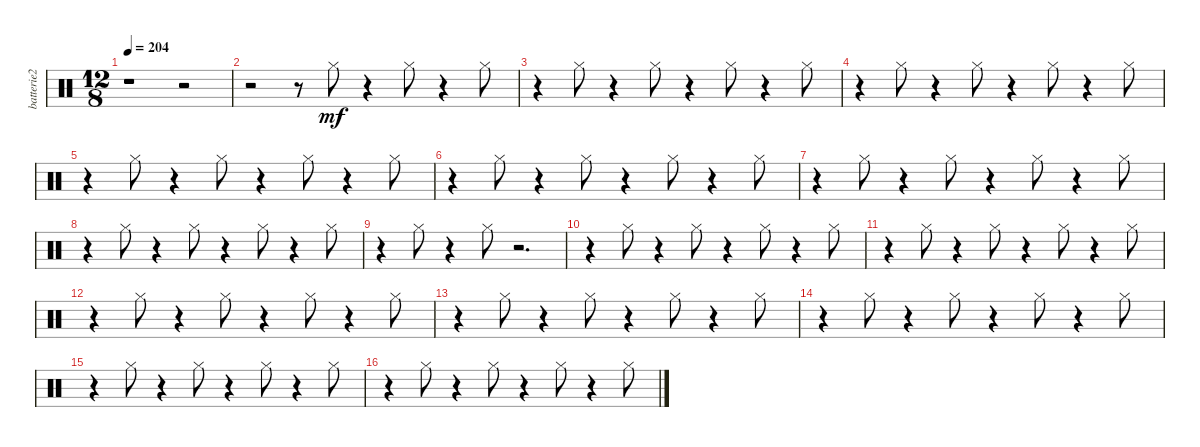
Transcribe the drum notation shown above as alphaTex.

\track ("batterie2" "batterie2") {instrument percussion}
\staff {score}
\articulation defaults
\ts (12 8)
\tempo 204
\clef neutral
\ks c
r.1{dy mf} r.2 |
r.2 r.8 "Hi-Hat (closed)".8 r.4 "Hi-Hat (closed)".8 r.4 "Hi-Hat (closed)".8 |
r.4 "Hi-Hat (closed)".8 r.4 "Hi-Hat (closed)".8 r.4 "Hi-Hat (closed)".8 r.4 "Hi-Hat (closed)".8 |
r.4 "Hi-Hat (closed)".8 r.4 "Hi-Hat (closed)".8 r.4 "Hi-Hat (closed)".8 r.4 "Hi-Hat (closed)".8 |
r.4 "Hi-Hat (closed)".8 r.4 "Hi-Hat (closed)".8 r.4 "Hi-Hat (closed)".8 r.4 "Hi-Hat (closed)".8 |
r.4 "Hi-Hat (closed)".8 r.4 "Hi-Hat (closed)".8 r.4 "Hi-Hat (closed)".8 r.4 "Hi-Hat (closed)".8 |
r.4 "Hi-Hat (closed)".8 r.4 "Hi-Hat (closed)".8 r.4 "Hi-Hat (closed)".8 r.4 "Hi-Hat (closed)".8 |
r.4 "Hi-Hat (closed)".8 r.4 "Hi-Hat (closed)".8 r.4 "Hi-Hat (closed)".8 r.4 "Hi-Hat (closed)".8 |
r.4 "Hi-Hat (closed)".8 r.4 "Hi-Hat (closed)".8 r.2{d} |
r.4 "Hi-Hat (closed)".8 r.4 "Hi-Hat (closed)".8 r.4 "Hi-Hat (closed)".8 r.4 "Hi-Hat (closed)".8 |
r.4 "Hi-Hat (closed)".8 r.4 "Hi-Hat (closed)".8 r.4 "Hi-Hat (closed)".8 r.4 "Hi-Hat (closed)".8 |
r.4 "Hi-Hat (closed)".8 r.4 "Hi-Hat (closed)".8 r.4 "Hi-Hat (closed)".8 r.4 "Hi-Hat (closed)".8 |
r.4 "Hi-Hat (closed)".8 r.4 "Hi-Hat (closed)".8 r.4 "Hi-Hat (closed)".8 r.4 "Hi-Hat (closed)".8 |
r.4 "Hi-Hat (closed)".8 r.4 "Hi-Hat (closed)".8 r.4 "Hi-Hat (closed)".8 r.4 "Hi-Hat (closed)".8 |
r.4 "Hi-Hat (closed)".8 r.4 "Hi-Hat (closed)".8 r.4 "Hi-Hat (closed)".8 r.4 "Hi-Hat (closed)".8 |
r.4 "Hi-Hat (closed)".8 r.4 "Hi-Hat (closed)".8 r.4 "Hi-Hat (closed)".8 r.4 "Hi-Hat (closed)".8
